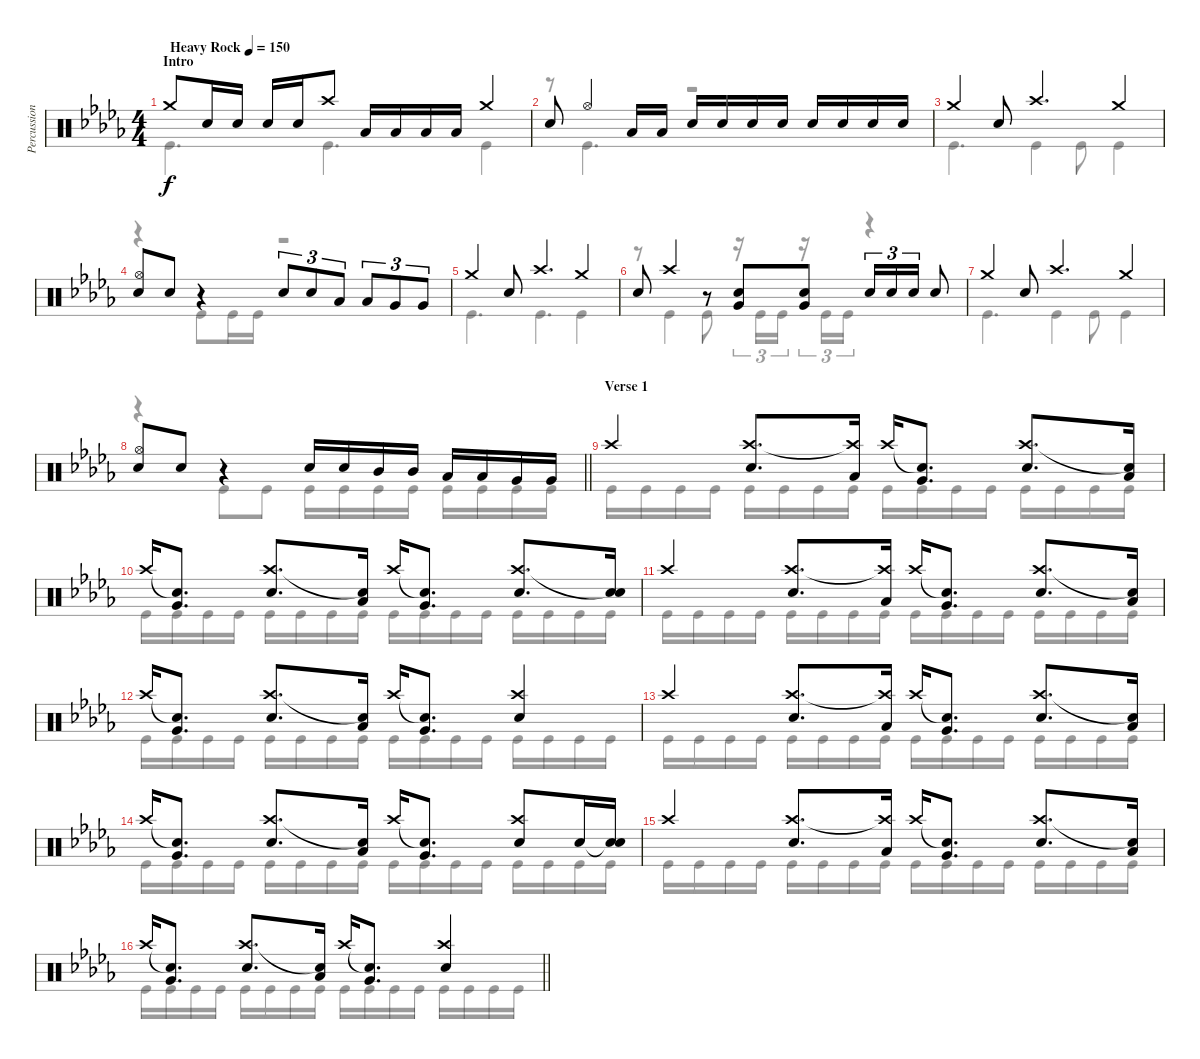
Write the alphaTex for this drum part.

\track ("Percussion" "Percussion") {instrument percussion}
\staff {score}
\articulation defaults
\voice
\ts (4 4)
\section ("" "Intro")
\tempo (150 "Heavy Rock")
\clef neutral
\ks bbminor "Crash medium (hit)".8{dy f} "Electric Snare (hit)".16 "Electric Snare (hit)".16 "Electric Snare (hit)".16 "Electric Snare (hit)".16 "Crash high (hit)".8 "Low Tom (hit)".16 "Low Tom (hit)".16 "Low Tom (hit)".16 "Low Tom (hit)".16 "Crash medium (hit)".4
|
"Electric Snare (hit)".8 "Hi-Hat (open)".4 "Low Tom (hit)".16 "Low Tom (hit)".16 "Electric Snare (hit)".16 "Electric Snare (hit)".16 "Electric Snare (hit)".16 "Electric Snare (hit)".16 "Electric Snare (hit)".16 "Electric Snare (hit)".16 "Electric Snare (hit)".16 "Electric Snare (hit)".16 |
"Crash medium (hit)".4 "Electric Snare (hit)".8 "Crash high (hit)".4{d} "Crash medium (hit)".4 |
("Hi-Hat (open)" "Electric Snare (hit)").8 "Electric Snare (hit)".8 r.4 "Electric Snare (hit)".8{tu (3 2)} "Electric Snare (hit)".8{tu (3 2)} "Low Tom (hit)".8{tu (3 2)} "Low Tom (hit)".8{tu (3 2)} "Very Low Tom (hit)".8{tu (3 2)} "Very Low Tom (hit)".8{tu (3 2)} |
"Crash medium (hit)".4 "Electric Snare (hit)".8 "Crash high (hit)".4{d} "Crash medium (hit)".4 |
"Electric Snare (hit)".8 "Crash high (hit)".4 r.8 ("Very Low Tom (hit)" "Electric Snare (hit)").8 ("Very Low Tom (hit)" "Electric Snare (hit)").8 "Electric Snare (hit)".16{tu (3 2)} "Electric Snare (hit)".16{tu (3 2)} "Electric Snare (hit)".16{tu (3 2)} "Electric Snare (hit)".8 |
"Crash medium (hit)".4 "Electric Snare (hit)".8 "Crash high (hit)".4{d} "Crash medium (hit)".4 |
\barLineRight lightlight
("Hi-Hat (open)" "Electric Snare (hit)").8 "Electric Snare (hit)".8 r.4 "Electric Snare (hit)".16 "Electric Snare (hit)".16 "Mid Tom (hit)".16 "Mid Tom (hit)".16 "Low Tom (hit)".16 "Low Tom (hit)".16 "Very Low Tom (hit)".16 "Very Low Tom (hit)".16 |
\section ("" "Verse 1")
"Crash high (hit)".4 ("Crash high (hit)" "Electric Snare (hit)").8{d} ("Crash high (hit)"{t} "Low Tom (hit)").16 "Crash high (hit)".16 ("Snare (hit)"{t} "Very Low Tom (hit)").8{d} ("Crash high (hit)" "Electric Snare (hit)").8{d} ("Snare (hit)"{t} "Low Tom (hit)").16 |
"Crash high (hit)".16 ("Snare (hit)"{t} "Very Low Tom (hit)").8{d} ("Crash high (hit)" "Electric Snare (hit)").8{d} ("Snare (hit)"{t} "Low Tom (hit)").16 "Crash high (hit)".16 ("Snare (hit)"{t} "Very Low Tom (hit)").8{d} ("Crash high (hit)" "Electric Snare (hit)").8{d} ("Snare (hit)"{t} "Electric Snare (hit)").16 |
"Crash high (hit)".4 ("Crash high (hit)" "Electric Snare (hit)").8{d} ("Crash high (hit)"{t} "Low Tom (hit)").16 "Crash high (hit)".16 ("Snare (hit)"{t} "Very Low Tom (hit)").8{d} ("Crash high (hit)" "Electric Snare (hit)").8{d} ("Snare (hit)"{t} "Low Tom (hit)").16 |
"Crash high (hit)".16 ("Snare (hit)"{t} "Very Low Tom (hit)").8{d} ("Crash high (hit)" "Electric Snare (hit)").8{d} ("Snare (hit)"{t} "Low Tom (hit)").16 "Crash high (hit)".16 ("Snare (hit)"{t} "Very Low Tom (hit)").8{d} ("Crash high (hit)" "Electric Snare (hit)").4 |
"Crash high (hit)".4 ("Crash high (hit)" "Electric Snare (hit)").8{d} ("Crash high (hit)"{t} "Low Tom (hit)").16 "Crash high (hit)".16 ("Snare (hit)"{t} "Very Low Tom (hit)").8{d} ("Crash high (hit)" "Electric Snare (hit)").8{d} ("Snare (hit)"{t} "Low Tom (hit)").16 |
"Crash high (hit)".16 ("Snare (hit)"{t} "Very Low Tom (hit)").8{d} ("Crash high (hit)" "Electric Snare (hit)").8{d} ("Snare (hit)"{t} "Low Tom (hit)").16 "Crash high (hit)".16 ("Snare (hit)"{t} "Very Low Tom (hit)").8{d} ("Crash high (hit)" "Electric Snare (hit)").8 "Electric Snare (hit)".16 ("Snare (hit)"{t} "Electric Snare (hit)").16 |
"Crash high (hit)".4 ("Crash high (hit)" "Electric Snare (hit)").8{d} ("Crash high (hit)"{t} "Low Tom (hit)").16 "Crash high (hit)".16 ("Snare (hit)"{t} "Very Low Tom (hit)").8{d} ("Crash high (hit)" "Electric Snare (hit)").8{d} ("Snare (hit)"{t} "Low Tom (hit)").16 |
\barLineRight lightlight "Crash high (hit)".16
("Snare (hit)"{t} "Very Low Tom (hit)").8{d} ("Crash high (hit)" "Electric Snare (hit)").8{d} ("Snare (hit)"{t} "Low Tom (hit)").16 "Crash high (hit)".16 ("Snare (hit)"{t} "Very Low Tom (hit)").8{d} ("Crash high (hit)" "Electric Snare (hit)").4
\voice
\clef neutral
\ottava regular
\simile none
\ks bbminor "Kick (hit)".4{d dy f} "Kick (hit)".4{d} "Kick (hit)".4
|
r.8 "Kick (hit)".4{d} r.2 |
"Kick (hit)".4{d} "Kick (hit)".4 "Kick (hit)".8 "Kick (hit)".4 |
r.4 "Kick (hit)".8 "Kick (hit)".16 "Kick (hit)".16 r.2 |
"Kick (hit)".4{d} "Kick (hit)".4{d} "Kick (hit)".4 |
r.8 "Kick (hit)".4 "Kick (hit)".8 r.16{tu (3 2)} "Kick (hit)".16{tu (3 2)} "Kick (hit)".16{tu (3 2)} r.16{tu (3 2)} "Kick (hit)".16{tu (3 2)} "Kick (hit)".16{tu (3 2)} r.4 |
"Kick (hit)".4{d} "Kick (hit)".4 "Kick (hit)".8 "Kick (hit)".4 |
\barLineRight lightlight
r.4 "Kick (hit)".8 "Kick (hit)".8 "Kick (hit)".16 "Kick (hit)".16 "Kick (hit)".16 "Kick (hit)".16 "Kick (hit)".16 "Kick (hit)".16 "Kick (hit)".16 "Kick (hit)".16 |
"Kick (hit)".16 "Kick (hit)".16 "Kick (hit)".16 "Kick (hit)".16 "Kick (hit)".16 "Kick (hit)".16 "Kick (hit)".16 "Kick (hit)".16 "Kick (hit)".16 "Kick (hit)".16 "Kick (hit)".16 "Kick (hit)".16 "Kick (hit)".16 "Kick (hit)".16 "Kick (hit)".16 "Kick (hit)".16 |
"Kick (hit)".16 "Kick (hit)".16 "Kick (hit)".16 "Kick (hit)".16 "Kick (hit)".16 "Kick (hit)".16 "Kick (hit)".16 "Kick (hit)".16 "Kick (hit)".16 "Kick (hit)".16 "Kick (hit)".16 "Kick (hit)".16 "Kick (hit)".16 "Kick (hit)".16 "Kick (hit)".16 "Kick (hit)".16 |
"Kick (hit)".16 "Kick (hit)".16 "Kick (hit)".16 "Kick (hit)".16 "Kick (hit)".16 "Kick (hit)".16 "Kick (hit)".16 "Kick (hit)".16 "Kick (hit)".16 "Kick (hit)".16 "Kick (hit)".16 "Kick (hit)".16 "Kick (hit)".16 "Kick (hit)".16 "Kick (hit)".16 "Kick (hit)".16 |
"Kick (hit)".16 "Kick (hit)".16 "Kick (hit)".16 "Kick (hit)".16 "Kick (hit)".16 "Kick (hit)".16 "Kick (hit)".16 "Kick (hit)".16 "Kick (hit)".16 "Kick (hit)".16 "Kick (hit)".16 "Kick (hit)".16 "Kick (hit)".16 "Kick (hit)".16 "Kick (hit)".16 "Kick (hit)".16 |
"Kick (hit)".16 "Kick (hit)".16 "Kick (hit)".16 "Kick (hit)".16 "Kick (hit)".16 "Kick (hit)".16 "Kick (hit)".16 "Kick (hit)".16 "Kick (hit)".16 "Kick (hit)".16 "Kick (hit)".16 "Kick (hit)".16 "Kick (hit)".16 "Kick (hit)".16 "Kick (hit)".16 "Kick (hit)".16 |
"Kick (hit)".16 "Kick (hit)".16 "Kick (hit)".16 "Kick (hit)".16 "Kick (hit)".16 "Kick (hit)".16 "Kick (hit)".16 "Kick (hit)".16 "Kick (hit)".16 "Kick (hit)".16 "Kick (hit)".16 "Kick (hit)".16 "Kick (hit)".16 "Kick (hit)".16 "Kick (hit)".16 "Kick (hit)".16 |
"Kick (hit)".16 "Kick (hit)".16 "Kick (hit)".16 "Kick (hit)".16 "Kick (hit)".16 "Kick (hit)".16 "Kick (hit)".16 "Kick (hit)".16 "Kick (hit)".16 "Kick (hit)".16 "Kick (hit)".16 "Kick (hit)".16 "Kick (hit)".16 "Kick (hit)".16 "Kick (hit)".16 "Kick (hit)".16 |
\barLineRight lightlight "Kick (hit)".16 "Kick (hit)".16 "Kick (hit)".16 "Kick (hit)".16 "Kick (hit)".16 "Kick (hit)".16 "Kick (hit)".16 "Kick (hit)".16 "Kick (hit)".16 "Kick (hit)".16 "Kick (hit)".16 "Kick (hit)".16 "Kick (hit)".16 "Kick (hit)".16 "Kick (hit)".16 "Kick (hit)".16
